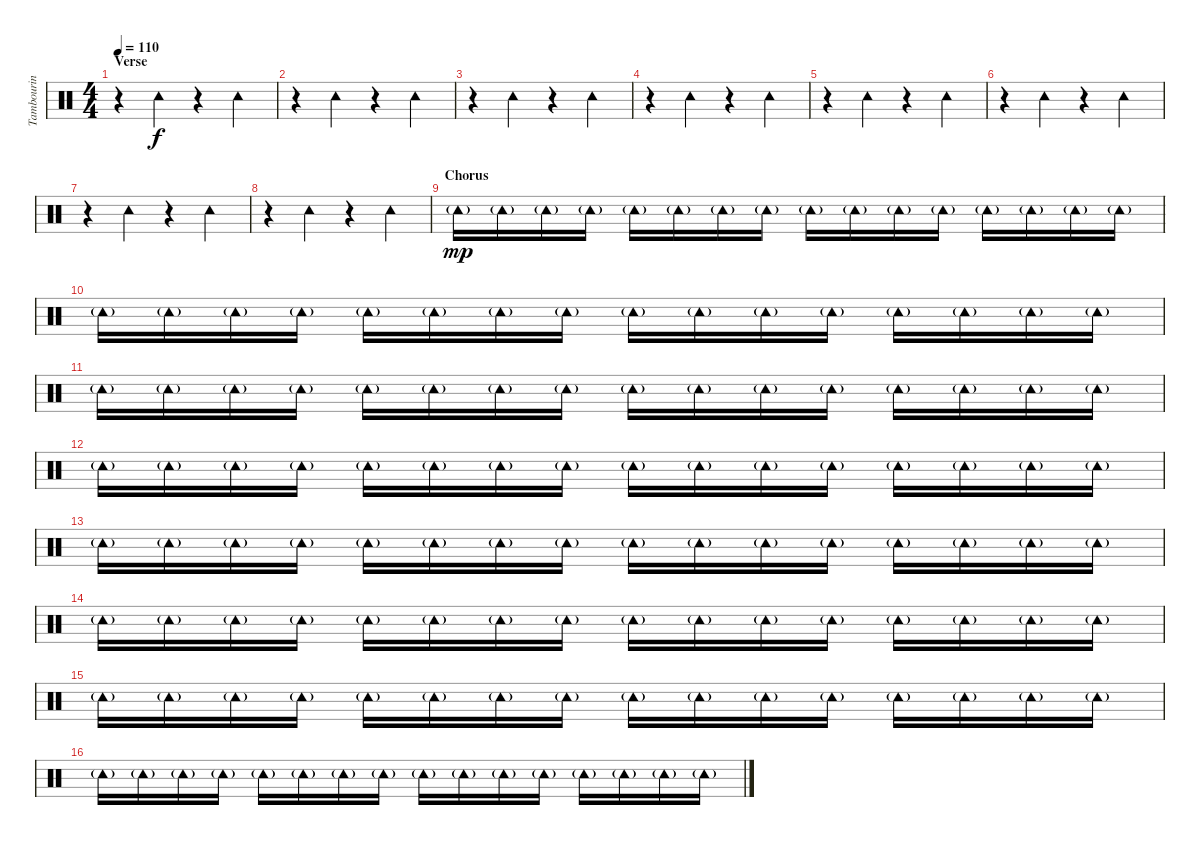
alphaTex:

\track ("Tambourin" "Tambourin") {instrument percussion}
\staff {score}
\articulation defaults
\ts (4 4)
\section ("" "Verse")
\tempo 110
\clef neutral
\ks c
r.4{dy mp} "Tambourine (hit)".4{dy f} r.4 "Tambourine (hit)".4 |
r.4 "Tambourine (hit)".4 r.4 "Tambourine (hit)".4 |
r.4 "Tambourine (hit)".4 r.4 "Tambourine (hit)".4 |
r.4 "Tambourine (hit)".4 r.4 "Tambourine (hit)".4 |
r.4 "Tambourine (hit)".4 r.4 "Tambourine (hit)".4 |
r.4 "Tambourine (hit)".4 r.4 "Tambourine (hit)".4 |
r.4 "Tambourine (hit)".4 r.4 "Tambourine (hit)".4 |
r.4 "Tambourine (hit)".4 r.4 "Tambourine (hit)".4 |
\section ("" "Chorus")
"Tambourine (hit)"{g}.16{dy mp} "Tambourine (hit)"{g}.16 "Tambourine (hit)"{g}.16 "Tambourine (hit)"{g}.16 "Tambourine (hit)"{g}.16 "Tambourine (hit)"{g}.16 "Tambourine (hit)"{g}.16 "Tambourine (hit)"{g}.16 "Tambourine (hit)"{g}.16 "Tambourine (hit)"{g}.16 "Tambourine (hit)"{g}.16 "Tambourine (hit)"{g}.16 "Tambourine (hit)"{g}.16 "Tambourine (hit)"{g}.16 "Tambourine (hit)"{g}.16 "Tambourine (hit)"{g}.16 |
"Tambourine (hit)"{g}.16 "Tambourine (hit)"{g}.16 "Tambourine (hit)"{g}.16 "Tambourine (hit)"{g}.16 "Tambourine (hit)"{g}.16 "Tambourine (hit)"{g}.16 "Tambourine (hit)"{g}.16 "Tambourine (hit)"{g}.16 "Tambourine (hit)"{g}.16 "Tambourine (hit)"{g}.16 "Tambourine (hit)"{g}.16 "Tambourine (hit)"{g}.16 "Tambourine (hit)"{g}.16 "Tambourine (hit)"{g}.16 "Tambourine (hit)"{g}.16 "Tambourine (hit)"{g}.16 |
"Tambourine (hit)"{g}.16 "Tambourine (hit)"{g}.16 "Tambourine (hit)"{g}.16 "Tambourine (hit)"{g}.16 "Tambourine (hit)"{g}.16 "Tambourine (hit)"{g}.16 "Tambourine (hit)"{g}.16 "Tambourine (hit)"{g}.16 "Tambourine (hit)"{g}.16 "Tambourine (hit)"{g}.16 "Tambourine (hit)"{g}.16 "Tambourine (hit)"{g}.16 "Tambourine (hit)"{g}.16 "Tambourine (hit)"{g}.16 "Tambourine (hit)"{g}.16 "Tambourine (hit)"{g}.16 |
"Tambourine (hit)"{g}.16 "Tambourine (hit)"{g}.16 "Tambourine (hit)"{g}.16 "Tambourine (hit)"{g}.16 "Tambourine (hit)"{g}.16 "Tambourine (hit)"{g}.16 "Tambourine (hit)"{g}.16 "Tambourine (hit)"{g}.16 "Tambourine (hit)"{g}.16 "Tambourine (hit)"{g}.16 "Tambourine (hit)"{g}.16 "Tambourine (hit)"{g}.16 "Tambourine (hit)"{g}.16 "Tambourine (hit)"{g}.16 "Tambourine (hit)"{g}.16 "Tambourine (hit)"{g}.16 |
"Tambourine (hit)"{g}.16 "Tambourine (hit)"{g}.16 "Tambourine (hit)"{g}.16 "Tambourine (hit)"{g}.16 "Tambourine (hit)"{g}.16 "Tambourine (hit)"{g}.16 "Tambourine (hit)"{g}.16 "Tambourine (hit)"{g}.16 "Tambourine (hit)"{g}.16 "Tambourine (hit)"{g}.16 "Tambourine (hit)"{g}.16 "Tambourine (hit)"{g}.16 "Tambourine (hit)"{g}.16 "Tambourine (hit)"{g}.16 "Tambourine (hit)"{g}.16 "Tambourine (hit)"{g}.16 |
"Tambourine (hit)"{g}.16 "Tambourine (hit)"{g}.16 "Tambourine (hit)"{g}.16 "Tambourine (hit)"{g}.16 "Tambourine (hit)"{g}.16 "Tambourine (hit)"{g}.16 "Tambourine (hit)"{g}.16 "Tambourine (hit)"{g}.16 "Tambourine (hit)"{g}.16 "Tambourine (hit)"{g}.16 "Tambourine (hit)"{g}.16 "Tambourine (hit)"{g}.16 "Tambourine (hit)"{g}.16 "Tambourine (hit)"{g}.16 "Tambourine (hit)"{g}.16 "Tambourine (hit)"{g}.16 |
"Tambourine (hit)"{g}.16 "Tambourine (hit)"{g}.16 "Tambourine (hit)"{g}.16 "Tambourine (hit)"{g}.16 "Tambourine (hit)"{g}.16 "Tambourine (hit)"{g}.16 "Tambourine (hit)"{g}.16 "Tambourine (hit)"{g}.16 "Tambourine (hit)"{g}.16 "Tambourine (hit)"{g}.16 "Tambourine (hit)"{g}.16 "Tambourine (hit)"{g}.16 "Tambourine (hit)"{g}.16 "Tambourine (hit)"{g}.16 "Tambourine (hit)"{g}.16 "Tambourine (hit)"{g}.16 |
"Tambourine (hit)"{g}.16 "Tambourine (hit)"{g}.16 "Tambourine (hit)"{g}.16 "Tambourine (hit)"{g}.16 "Tambourine (hit)"{g}.16 "Tambourine (hit)"{g}.16 "Tambourine (hit)"{g}.16 "Tambourine (hit)"{g}.16 "Tambourine (hit)"{g}.16 "Tambourine (hit)"{g}.16 "Tambourine (hit)"{g}.16 "Tambourine (hit)"{g}.16 "Tambourine (hit)"{g}.16 "Tambourine (hit)"{g}.16 "Tambourine (hit)"{g}.16 "Tambourine (hit)"{g}.16
